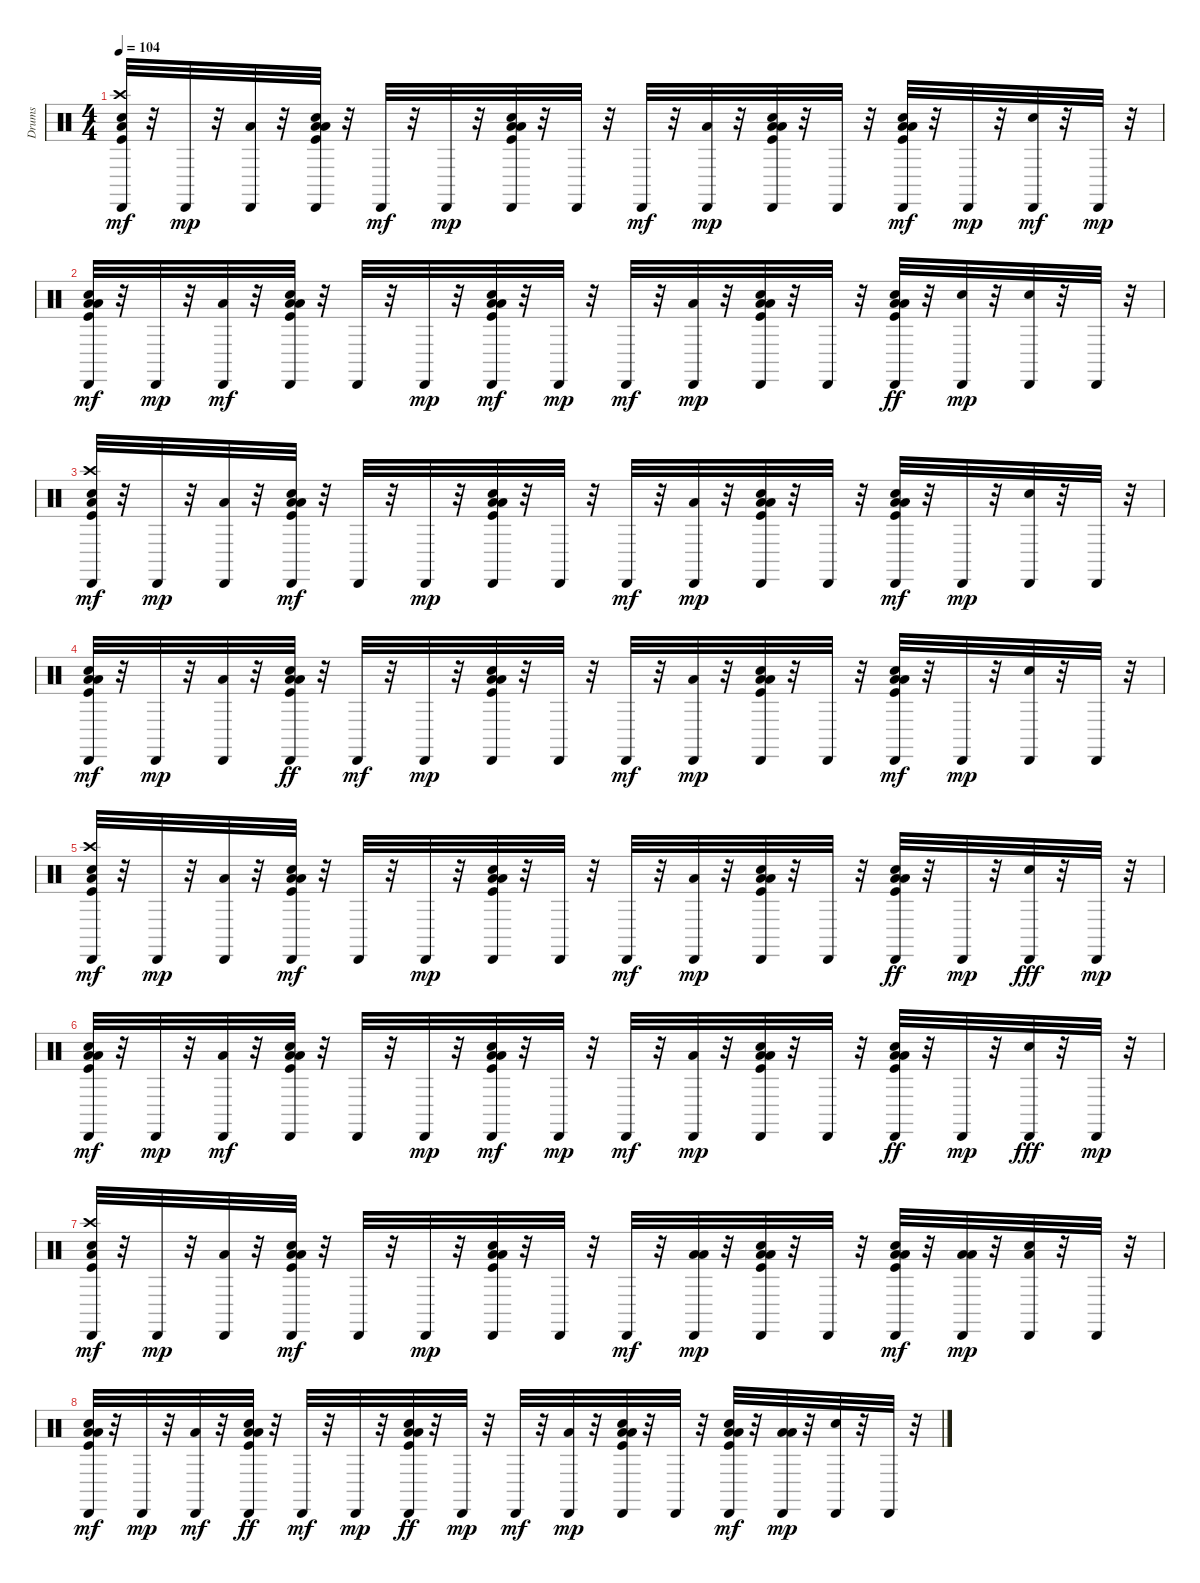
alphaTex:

\track ("Drums" "Drums") {instrument percussion}
\staff {score}
\articulation defaults
\ts (4 4)
\tempo 104
\clef neutral
\ks c
("Crash high (hit)" "Hand Clap (hit)" "Low Floor Tom (hit)" "Kick (hit)" "Cabasa (hit)").32{dy mf} r.32 "Cabasa (hit)".32{dy mp} r.32 ("Low Tom (hit)" "Cabasa (hit)").32 r.32 ("Low Tom (hit)" "Kick (hit)" "Low Floor Tom (hit)" "Hand Clap (hit)" "Cabasa (hit)").32 r.32 "Cabasa (hit)".32{dy mf} r.32 "Cabasa (hit)".32{dy mp} r.32 ("Low Tom (hit)" "Low Floor Tom (hit)" "Kick (hit)" "Hand Clap (hit)" "Cabasa (hit)").32 r.32 "Cabasa (hit)".32 r.32 "Cabasa (hit)".32{dy mf} r.32 ("Low Tom (hit)" "Cabasa (hit)").32{dy mp} r.32 ("Low Tom (hit)" "Low Floor Tom (hit)" "Kick (hit)" "Hand Clap (hit)" "Cabasa (hit)").32 r.32 "Cabasa (hit)".32 r.32 ("Low Tom (hit)" "Kick (hit)" "Low Floor Tom (hit)" "Hand Clap (hit)" "Cabasa (hit)").32{dy mf} r.32 "Cabasa (hit)".32{dy mp} r.32 ("Snare (hit) 2" "Cabasa (hit)").32{dy mf} r.32 "Cabasa (hit)".32{dy mp} r.32 |
("Low Floor Tom (hit)" "Hand Clap (hit)" "Cabasa (hit)" "Low Tom (hit)" "Kick (hit)").32{dy mf} r.32 "Cabasa (hit)".32{dy mp} r.32 ("Cabasa (hit)" "Low Tom (hit)").32{dy mf} r.32 ("Cabasa (hit)" "Low Tom (hit)" "Low Floor Tom (hit)" "Kick (hit)" "Hand Clap (hit)").32 r.32 "Cabasa (hit)".32 r.32 "Cabasa (hit)".32{dy mp} r.32 ("Cabasa (hit)" "Low Tom (hit)" "Low Floor Tom (hit)" "Kick (hit)" "Hand Clap (hit)").32{dy mf} r.32 "Cabasa (hit)".32{dy mp} r.32 "Cabasa (hit)".32{dy mf} r.32 ("Cabasa (hit)" "Low Tom (hit)").32{dy mp} r.32 ("Hand Clap (hit)" "Low Tom (hit)" "Low Floor Tom (hit)" "Kick (hit)" "Cabasa (hit)").32 r.32 "Cabasa (hit)".32 r.32 ("Kick (hit)" "Hand Clap (hit)" "Cabasa (hit)" "Low Tom (hit)" "Low Floor Tom (hit)").32{dy ff} r.32 ("Snare (hit) 2" "Cabasa (hit)").32{dy mp} r.32 ("Snare (hit) 2" "Cabasa (hit)").32 r.32 "Cabasa (hit)".32 r.32 |
("Crash high (hit)" "Low Floor Tom (hit)" "Cabasa (hit)" "Kick (hit)" "Hand Clap (hit)").32{dy mf} r.32 "Cabasa (hit)".32{dy mp} r.32 ("Cabasa (hit)" "Low Tom (hit)").32 r.32 ("Kick (hit)" "Cabasa (hit)" "Low Floor Tom (hit)" "Low Tom (hit)" "Hand Clap (hit)").32{dy mf} r.32 "Cabasa (hit)".32 r.32 "Cabasa (hit)".32{dy mp} r.32 ("Low Floor Tom (hit)" "Low Tom (hit)" "Kick (hit)" "Hand Clap (hit)" "Cabasa (hit)").32 r.32 "Cabasa (hit)".32 r.32 "Cabasa (hit)".32{dy mf} r.32 ("Low Tom (hit)" "Cabasa (hit)").32{dy mp} r.32 ("Low Floor Tom (hit)" "Low Tom (hit)" "Kick (hit)" "Hand Clap (hit)" "Cabasa (hit)").32 r.32 "Cabasa (hit)".32 r.32 ("Low Floor Tom (hit)" "Low Tom (hit)" "Kick (hit)" "Hand Clap (hit)" "Cabasa (hit)").32{dy mf} r.32 "Cabasa (hit)".32{dy mp} r.32 ("Snare (hit) 2" "Cabasa (hit)").32 r.32 "Cabasa (hit)".32 r.32 |
("Hand Clap (hit)" "Low Tom (hit)" "Cabasa (hit)" "Low Floor Tom (hit)" "Kick (hit)").32{dy mf} r.32 "Cabasa (hit)".32{dy mp} r.32 ("Low Tom (hit)" "Cabasa (hit)").32 r.32 ("Low Tom (hit)" "Kick (hit)" "Cabasa (hit)" "Low Floor Tom (hit)" "Hand Clap (hit)").32{dy ff} r.32 "Cabasa (hit)".32{dy mf} r.32 "Cabasa (hit)".32{dy mp} r.32 ("Low Tom (hit)" "Kick (hit)" "Hand Clap (hit)" "Low Floor Tom (hit)" "Cabasa (hit)").32 r.32 "Cabasa (hit)".32 r.32 "Cabasa (hit)".32{dy mf} r.32 ("Low Tom (hit)" "Cabasa (hit)").32{dy mp} r.32 ("Hand Clap (hit)" "Low Tom (hit)" "Low Floor Tom (hit)" "Kick (hit)" "Cabasa (hit)").32 r.32 "Cabasa (hit)".32 r.32 ("Hand Clap (hit)" "Low Floor Tom (hit)" "Low Tom (hit)" "Kick (hit)" "Cabasa (hit)").32{dy mf} r.32 "Cabasa (hit)".32{dy mp} r.32 ("Snare (hit) 2" "Cabasa (hit)").32 r.32 "Cabasa (hit)".32 r.32 |
("Crash high (hit)" "Low Floor Tom (hit)" "Kick (hit)" "Hand Clap (hit)" "Cabasa (hit)").32{dy mf} r.32 "Cabasa (hit)".32{dy mp} r.32 ("Low Tom (hit)" "Cabasa (hit)").32 r.32 ("Low Tom (hit)" "Kick (hit)" "Cabasa (hit)" "Low Floor Tom (hit)" "Hand Clap (hit)").32{dy mf} r.32 "Cabasa (hit)".32 r.32 "Cabasa (hit)".32{dy mp} r.32 ("Low Tom (hit)" "Low Floor Tom (hit)" "Kick (hit)" "Cabasa (hit)" "Hand Clap (hit)").32 r.32 "Cabasa (hit)".32 r.32 "Cabasa (hit)".32{dy mf} r.32 ("Low Tom (hit)" "Cabasa (hit)").32{dy mp} r.32 ("Low Tom (hit)" "Hand Clap (hit)" "Low Floor Tom (hit)" "Kick (hit)" "Cabasa (hit)").32 r.32 "Cabasa (hit)".32 r.32 ("Low Tom (hit)" "Kick (hit)" "Hand Clap (hit)" "Cabasa (hit)" "Low Floor Tom (hit)").32{dy ff} r.32 "Cabasa (hit)".32{dy mp} r.32 ("Cabasa (hit)" "Snare (hit) 2").32{dy fff} r.32 "Cabasa (hit)".32{dy mp} r.32 |
("Hand Clap (hit)" "Low Floor Tom (hit)" "Cabasa (hit)" "Low Tom (hit)" "Kick (hit)").32{dy mf} r.32 "Cabasa (hit)".32{dy mp} r.32 ("Cabasa (hit)" "Low Tom (hit)").32{dy mf} r.32 ("Hand Clap (hit)" "Cabasa (hit)" "Low Tom (hit)" "Low Floor Tom (hit)" "Kick (hit)").32 r.32 "Cabasa (hit)".32 r.32 "Cabasa (hit)".32{dy mp} r.32 ("Low Tom (hit)" "Low Floor Tom (hit)" "Hand Clap (hit)" "Cabasa (hit)" "Kick (hit)").32{dy mf} r.32 "Cabasa (hit)".32{dy mp} r.32 "Cabasa (hit)".32{dy mf} r.32 ("Cabasa (hit)" "Low Tom (hit)").32{dy mp} r.32 ("Hand Clap (hit)" "Low Tom (hit)" "Low Floor Tom (hit)" "Kick (hit)" "Cabasa (hit)").32 r.32 "Cabasa (hit)".32 r.32 ("Kick (hit)" "Hand Clap (hit)" "Cabasa (hit)" "Low Tom (hit)" "Low Floor Tom (hit)").32{dy ff} r.32 "Cabasa (hit)".32{dy mp} r.32 ("Cabasa (hit)" "Snare (hit) 2").32{dy fff} r.32 "Cabasa (hit)".32{dy mp} r.32 |
("Crash high (hit)" "Low Floor Tom (hit)" "Cabasa (hit)" "Kick (hit)" "Hand Clap (hit)").32{dy mf} r.32 "Cabasa (hit)".32{dy mp} r.32 ("Cabasa (hit)" "Low Tom (hit)").32 r.32 ("Kick (hit)" "Cabasa (hit)" "Low Floor Tom (hit)" "Low Tom (hit)" "Hand Clap (hit)").32{dy mf} r.32 "Cabasa (hit)".32 r.32 "Cabasa (hit)".32{dy mp} r.32 ("Low Floor Tom (hit)" "Low Tom (hit)" "Kick (hit)" "Hand Clap (hit)" "Cabasa (hit)").32 r.32 "Cabasa (hit)".32 r.32 "Cabasa (hit)".32{dy mf} r.32 ("Cabasa (hit)" "Low Floor Tom (hit)" "Low Tom (hit)").32{dy mp} r.32 ("Low Floor Tom (hit)" "Hand Clap (hit)" "Low Tom (hit)" "Kick (hit)" "Cabasa (hit)").32 r.32 "Cabasa (hit)".32 r.32 ("Low Floor Tom (hit)" "Low Tom (hit)" "Kick (hit)" "Hand Clap (hit)" "Cabasa (hit)").32{dy mf} r.32 ("Cabasa (hit)" "Low Tom (hit)" "Low Floor Tom (hit)").32{dy mp} r.32 ("Snare (hit) 2" "Cabasa (hit)" "Low Floor Tom (hit)").32 r.32 "Cabasa (hit)".32 r.32 |
("Hand Clap (hit)" "Cabasa (hit)" "Low Tom (hit)" "Low Floor Tom (hit)" "Kick (hit)").32{dy mf} r.32 "Cabasa (hit)".32{dy mp} r.32 ("Cabasa (hit)" "Low Tom (hit)").32{dy mf} r.32 ("Low Tom (hit)" "Kick (hit)" "Cabasa (hit)" "Hand Clap (hit)" "Low Floor Tom (hit)").32{dy ff} r.32 "Cabasa (hit)".32{dy mf} r.32 "Cabasa (hit)".32{dy mp} r.32 ("Hand Clap (hit)" "Cabasa (hit)" "Low Tom (hit)" "Kick (hit)" "Low Floor Tom (hit)").32{dy ff} r.32 "Cabasa (hit)".32{dy mp} r.32 "Cabasa (hit)".32{dy mf} r.32 ("Low Tom (hit)" "Cabasa (hit)").32{dy mp} r.32 ("Hand Clap (hit)" "Low Tom (hit)" "Low Floor Tom (hit)" "Kick (hit)" "Cabasa (hit)").32 r.32 "Cabasa (hit)".32 r.32 ("Low Floor Tom (hit)" "Low Tom (hit)" "Kick (hit)" "Hand Clap (hit)" "Cabasa (hit)").32{dy mf} r.32 ("Low Tom (hit)" "Low Floor Tom (hit)" "Cabasa (hit)").32{dy mp} r.32 ("Snare (hit) 2" "Cabasa (hit)").32 r.32 "Cabasa (hit)".32 r.32
